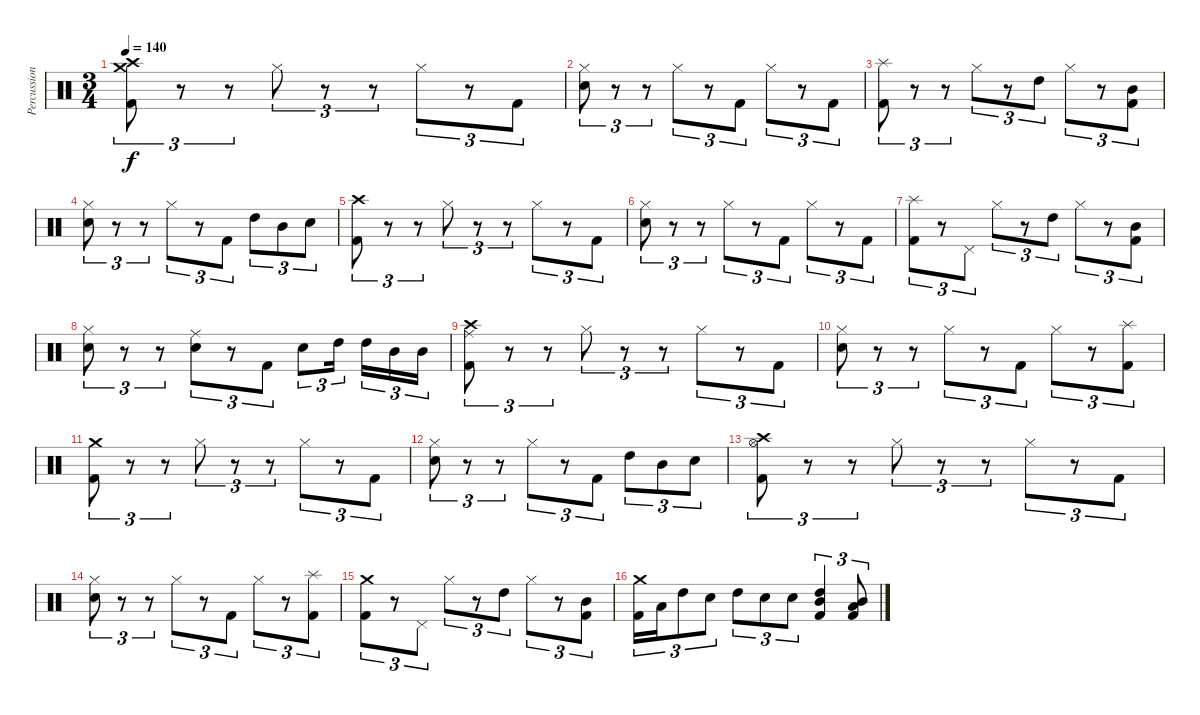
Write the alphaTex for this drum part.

\track ("Percussion" "Percussion") {instrument percussion}
\staff {score}
\articulation defaults
\ts (3 4)
\tempo 140
\clef neutral
\ks c
("Crash medium (hit)" "Crash high (hit)" "Kick (hit) 2").8{tu (3 2) dy f} r.8{tu (3 2)} r.8{tu (3 2)} "Hi-Hat (closed)".8{tu (3 2)} r.8{tu (3 2)} r.8{tu (3 2)} "Hi-Hat (closed)".8{tu (3 2)} r.8{tu (3 2)} "Kick (hit) 2".8{tu (3 2)} |
("Hi-Hat (closed)" "Electric Snare (hit)").8{tu (3 2)} r.8{tu (3 2)} r.8{tu (3 2)} "Hi-Hat (closed)".8{tu (3 2)} r.8{tu (3 2)} "Kick (hit) 2".8{tu (3 2)} "Hi-Hat (closed)".8{tu (3 2)} r.8{tu (3 2)} "Kick (hit) 2".8{tu (3 2)} |
("Splash (hit)" "Kick (hit) 2").8{tu (3 2)} r.8{tu (3 2)} r.8{tu (3 2)} "Hi-Hat (closed)".8{tu (3 2)} r.8{tu (3 2)} "High Tom (hit)".8{tu (3 2)} "Hi-Hat (closed)".8{tu (3 2)} r.8{tu (3 2)} ("Mid Tom (hit)" "Kick (hit) 2").8{tu (3 2)} |
("Hi-Hat (closed)" "Electric Snare (hit)").8{tu (3 2)} r.8{tu (3 2)} r.8{tu (3 2)} "Hi-Hat (closed)".8{tu (3 2)} r.8{tu (3 2)} "Kick (hit) 2".8{tu (3 2)} "High Tom (hit)".8{tu (3 2)} "Mid Tom (hit)".8{tu (3 2)} "Electric Snare (hit)".8{tu (3 2)} |
("Crash high (hit)" "Kick (hit) 2").8{tu (3 2)} r.8{tu (3 2)} r.8{tu (3 2)} "Hi-Hat (closed)".8{tu (3 2)} r.8{tu (3 2)} r.8{tu (3 2)} "Hi-Hat (closed)".8{tu (3 2)} r.8{tu (3 2)} "Kick (hit) 2".8{tu (3 2)} |
("Hi-Hat (closed)" "Electric Snare (hit)").8{tu (3 2)} r.8{tu (3 2)} r.8{tu (3 2)} "Hi-Hat (closed)".8{tu (3 2)} r.8{tu (3 2)} "Kick (hit) 2".8{tu (3 2)} "Hi-Hat (closed)".8{tu (3 2)} r.8{tu (3 2)} "Kick (hit) 2".8{tu (3 2)} |
("Splash (hit)" "Kick (hit) 2").8{tu (3 2)} r.8{tu (3 2)} "Pedal Hi-Hat (hit)".8{tu (3 2)} "Hi-Hat (closed)".8{tu (3 2)} r.8{tu (3 2)} "High Tom (hit)".8{tu (3 2)} "Hi-Hat (closed)".8{tu (3 2)} r.8{tu (3 2)} ("Mid Tom (hit)" "Kick (hit) 2").8{tu (3 2)} |
("Hi-Hat (closed)" "Electric Snare (hit)").8{tu (3 2)} r.8{tu (3 2)} r.8{tu (3 2)} ("Ride (middle)" "Electric Snare (hit)").8{tu (3 2)} r.8{tu (3 2)} "Kick (hit) 2".8{tu (3 2)} "Electric Snare (hit)".8{tu (3 2)} "High Tom (hit)".16{tu (3 2) beam splitsecondary} "High Tom (hit)".16{tu (3 2)} "Mid Tom (hit)".16{tu (3 2)} "Mid Tom (hit)".16{tu (3 2)} |
("Crash high (hit)" "Ride (middle)" "Kick (hit) 2").8{tu (3 2)} r.8{tu (3 2)} r.8{tu (3 2)} "Hi-Hat (closed)".8{tu (3 2)} r.8{tu (3 2)} r.8{tu (3 2)} "Hi-Hat (closed)".8{tu (3 2)} r.8{tu (3 2)} "Kick (hit) 2".8{tu (3 2)} |
("Hi-Hat (closed)" "Electric Snare (hit)").8{tu (3 2)} r.8{tu (3 2)} r.8{tu (3 2)} "Hi-Hat (closed)".8{tu (3 2)} r.8{tu (3 2)} "Kick (hit) 2".8{tu (3 2)} "Hi-Hat (closed)".8{tu (3 2)} r.8{tu (3 2)} ("Splash (hit)" "Kick (hit) 2").8{tu (3 2)} |
("Crash medium (hit)" "Kick (hit) 2").8{tu (3 2)} r.8{tu (3 2)} r.8{tu (3 2)} "Hi-Hat (closed)".8{tu (3 2)} r.8{tu (3 2)} r.8{tu (3 2)} "Hi-Hat (closed)".8{tu (3 2)} r.8{tu (3 2)} "Kick (hit) 2".8{tu (3 2)} |
("Hi-Hat (closed)" "Electric Snare (hit)").8{tu (3 2)} r.8{tu (3 2)} r.8{tu (3 2)} "Hi-Hat (closed)".8{tu (3 2)} r.8{tu (3 2)} "Kick (hit) 2".8{tu (3 2)} "High Tom (hit)".8{tu (3 2)} "Mid Tom (hit)".8{tu (3 2)} "Electric Snare (hit)".8{tu (3 2)} |
("Crash high (hit)" "Hi-Hat (open)" "Kick (hit) 2").8{tu (3 2)} r.8{tu (3 2)} r.8{tu (3 2)} "Hi-Hat (closed)".8{tu (3 2)} r.8{tu (3 2)} r.8{tu (3 2)} "Hi-Hat (closed)".8{tu (3 2)} r.8{tu (3 2)} "Kick (hit) 2".8{tu (3 2)} |
("Hi-Hat (closed)" "Electric Snare (hit)").8{tu (3 2)} r.8{tu (3 2)} r.8{tu (3 2)} "Hi-Hat (closed)".8{tu (3 2)} r.8{tu (3 2)} "Kick (hit) 2".8{tu (3 2)} "Hi-Hat (closed)".8{tu (3 2)} r.8{tu (3 2)} ("Splash (hit)" "Kick (hit) 2").8{tu (3 2)} |
("Crash medium (hit)" "Kick (hit) 2").8{tu (3 2)} r.8{tu (3 2)} "Pedal Hi-Hat (hit)".8{tu (3 2)} "Hi-Hat (closed)".8{tu (3 2)} r.8{tu (3 2)} "High Tom (hit)".8{tu (3 2)} "Hi-Hat (closed)".8{tu (3 2)} r.8{tu (3 2)} ("Mid Tom (hit)" "Kick (hit) 2").8{tu (3 2)} |
("Crash medium (hit)" "Kick (hit) 2").16{tu (3 2)} "Low Tom (hit)".16{tu (3 2)} "High Tom (hit)".8{tu (3 2)} "Electric Snare (hit)".8{tu (3 2)} "High Tom (hit)".8{tu (3 2)} "Electric Snare (hit)".8{tu (3 2)} "Electric Snare (hit)".8{tu (3 2)} ("High Tom (hit)" "Mid Tom (hit)" "Kick (hit) 2").4{tu (3 2)} ("Low Tom (hit)" "Mid Tom (hit)" "Kick (hit) 2").8{tu (3 2)}
